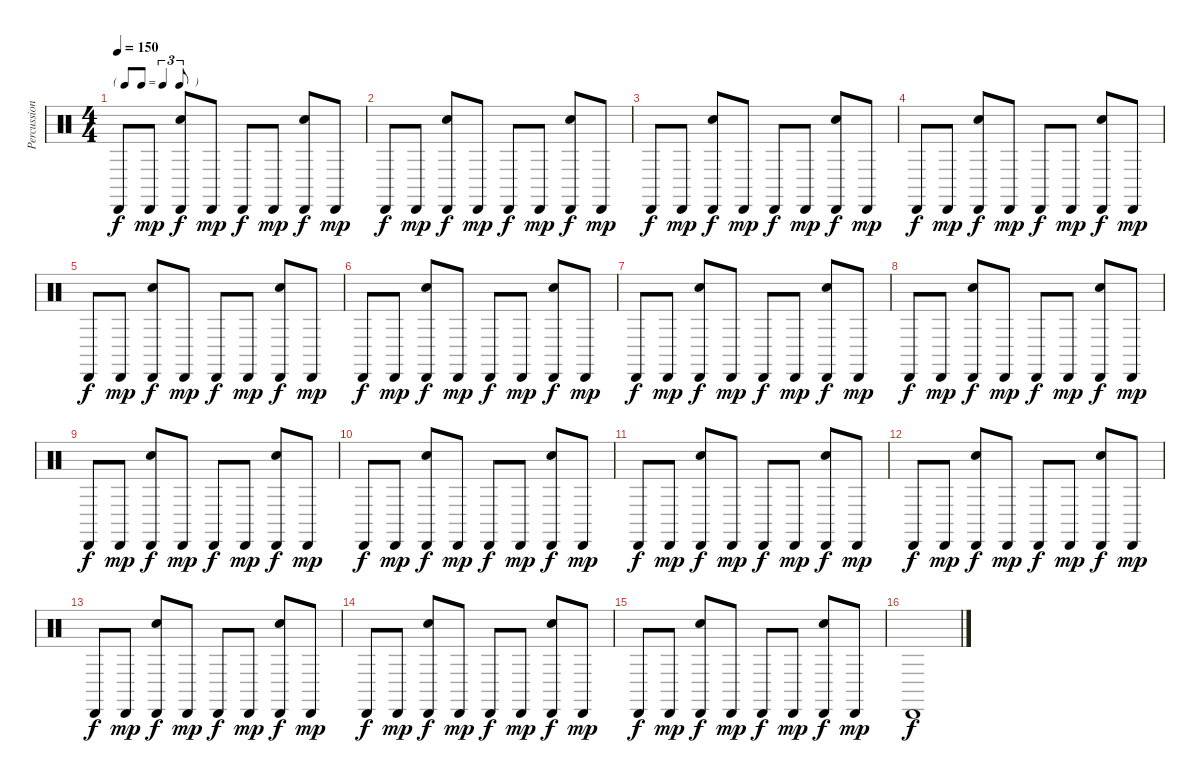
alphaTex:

\track ("Percussion" "Percussion") {instrument percussion}
\staff {score}
\articulation defaults
\ts (4 4)
\tf triplet8th
\tempo 150
\clef neutral
\ks c "Cabasa (hit)".8{dy f} "Cabasa (hit)".8{dy mp}
("Cabasa (hit)" "Hand Clap (hit)").8{dy f} "Cabasa (hit)".8{dy mp} "Cabasa (hit)".8{dy f} "Cabasa (hit)".8{dy mp} ("Cabasa (hit)" "Hand Clap (hit)").8{dy f} "Cabasa (hit)".8{dy mp} |
"Cabasa (hit)".8{dy f} "Cabasa (hit)".8{dy mp} ("Cabasa (hit)" "Hand Clap (hit)").8{dy f} "Cabasa (hit)".8{dy mp} "Cabasa (hit)".8{dy f} "Cabasa (hit)".8{dy mp} ("Cabasa (hit)" "Hand Clap (hit)").8{dy f} "Cabasa (hit)".8{dy mp} |
"Cabasa (hit)".8{dy f} "Cabasa (hit)".8{dy mp} ("Cabasa (hit)" "Hand Clap (hit)").8{dy f} "Cabasa (hit)".8{dy mp} "Cabasa (hit)".8{dy f} "Cabasa (hit)".8{dy mp} ("Cabasa (hit)" "Hand Clap (hit)").8{dy f} "Cabasa (hit)".8{dy mp} |
"Cabasa (hit)".8{dy f} "Cabasa (hit)".8{dy mp} ("Cabasa (hit)" "Hand Clap (hit)").8{dy f} "Cabasa (hit)".8{dy mp} "Cabasa (hit)".8{dy f} "Cabasa (hit)".8{dy mp} ("Cabasa (hit)" "Hand Clap (hit)").8{dy f} "Cabasa (hit)".8{dy mp} |
"Cabasa (hit)".8{dy f} "Cabasa (hit)".8{dy mp} ("Cabasa (hit)" "Hand Clap (hit)").8{dy f} "Cabasa (hit)".8{dy mp} "Cabasa (hit)".8{dy f} "Cabasa (hit)".8{dy mp} ("Cabasa (hit)" "Hand Clap (hit)").8{dy f} "Cabasa (hit)".8{dy mp} |
"Cabasa (hit)".8{dy f} "Cabasa (hit)".8{dy mp} ("Cabasa (hit)" "Hand Clap (hit)").8{dy f} "Cabasa (hit)".8{dy mp} "Cabasa (hit)".8{dy f} "Cabasa (hit)".8{dy mp} ("Cabasa (hit)" "Hand Clap (hit)").8{dy f} "Cabasa (hit)".8{dy mp} |
"Cabasa (hit)".8{dy f} "Cabasa (hit)".8{dy mp} ("Cabasa (hit)" "Hand Clap (hit)").8{dy f} "Cabasa (hit)".8{dy mp} "Cabasa (hit)".8{dy f} "Cabasa (hit)".8{dy mp} ("Cabasa (hit)" "Hand Clap (hit)").8{dy f} "Cabasa (hit)".8{dy mp} |
"Cabasa (hit)".8{dy f} "Cabasa (hit)".8{dy mp} ("Cabasa (hit)" "Hand Clap (hit)").8{dy f} "Cabasa (hit)".8{dy mp} "Cabasa (hit)".8{dy f} "Cabasa (hit)".8{dy mp} ("Cabasa (hit)" "Hand Clap (hit)").8{dy f} "Cabasa (hit)".8{dy mp} |
"Cabasa (hit)".8{dy f} "Cabasa (hit)".8{dy mp} ("Cabasa (hit)" "Hand Clap (hit)").8{dy f} "Cabasa (hit)".8{dy mp} "Cabasa (hit)".8{dy f} "Cabasa (hit)".8{dy mp} ("Cabasa (hit)" "Hand Clap (hit)").8{dy f} "Cabasa (hit)".8{dy mp} |
"Cabasa (hit)".8{dy f} "Cabasa (hit)".8{dy mp} ("Cabasa (hit)" "Hand Clap (hit)").8{dy f} "Cabasa (hit)".8{dy mp} "Cabasa (hit)".8{dy f} "Cabasa (hit)".8{dy mp} ("Cabasa (hit)" "Hand Clap (hit)").8{dy f} "Cabasa (hit)".8{dy mp} |
"Cabasa (hit)".8{dy f} "Cabasa (hit)".8{dy mp} ("Cabasa (hit)" "Hand Clap (hit)").8{dy f} "Cabasa (hit)".8{dy mp} "Cabasa (hit)".8{dy f} "Cabasa (hit)".8{dy mp} ("Cabasa (hit)" "Hand Clap (hit)").8{dy f} "Cabasa (hit)".8{dy mp} |
"Cabasa (hit)".8{dy f} "Cabasa (hit)".8{dy mp} ("Cabasa (hit)" "Hand Clap (hit)").8{dy f} "Cabasa (hit)".8{dy mp} "Cabasa (hit)".8{dy f} "Cabasa (hit)".8{dy mp} ("Cabasa (hit)" "Hand Clap (hit)").8{dy f} "Cabasa (hit)".8{dy mp} |
"Cabasa (hit)".8{dy f} "Cabasa (hit)".8{dy mp} ("Cabasa (hit)" "Hand Clap (hit)").8{dy f} "Cabasa (hit)".8{dy mp} "Cabasa (hit)".8{dy f} "Cabasa (hit)".8{dy mp} ("Cabasa (hit)" "Hand Clap (hit)").8{dy f} "Cabasa (hit)".8{dy mp} |
"Cabasa (hit)".8{dy f} "Cabasa (hit)".8{dy mp} ("Cabasa (hit)" "Hand Clap (hit)").8{dy f} "Cabasa (hit)".8{dy mp} "Cabasa (hit)".8{dy f} "Cabasa (hit)".8{dy mp} ("Cabasa (hit)" "Hand Clap (hit)").8{dy f} "Cabasa (hit)".8{dy mp} |
"Cabasa (hit)".8{dy f} "Cabasa (hit)".8{dy mp} ("Cabasa (hit)" "Hand Clap (hit)").8{dy f} "Cabasa (hit)".8{dy mp} "Cabasa (hit)".8{dy f} "Cabasa (hit)".8{dy mp} ("Cabasa (hit)" "Hand Clap (hit)").8{dy f} "Cabasa (hit)".8{dy mp} |
"Cabasa (hit)".1{dy f}
